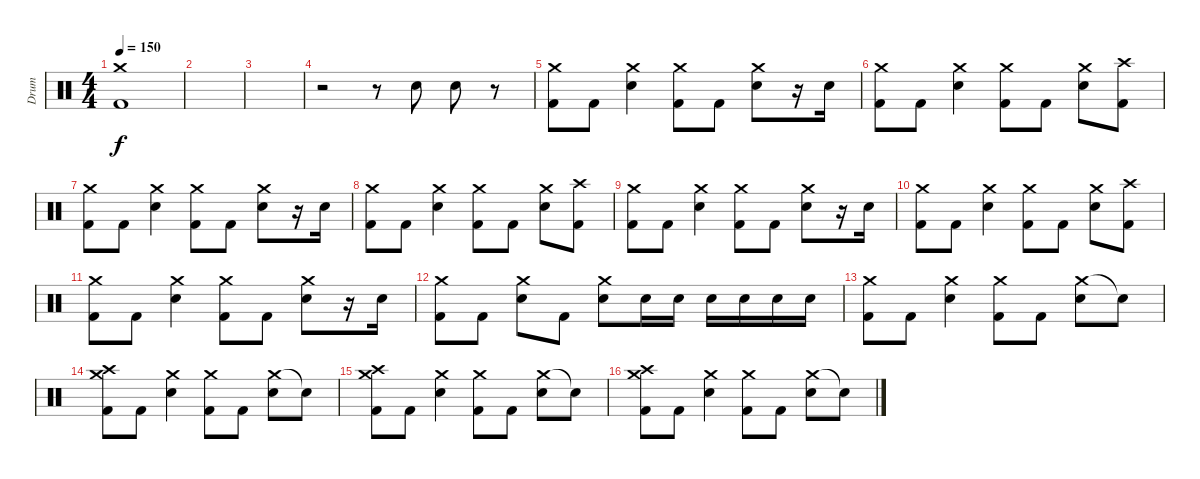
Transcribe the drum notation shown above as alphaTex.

\track ("Drum" "Drum") {instrument percussion}
\staff {score}
\articulation defaults
\ts (4 4)
\tempo 150
\clef neutral
\ks c
("Crash medium (hit)" "Kick (hit) 2").1{dy f} |
|
|
r.2 r.8 "Electric Snare (hit)".8 "Electric Snare (hit)".8 r.8 |
("Crash medium (hit)" "Kick (hit) 2").8 "Kick (hit) 2".8 ("Crash medium (hit)" "Electric Snare (hit)").4 ("Crash medium (hit)" "Kick (hit) 2").8 "Kick (hit) 2".8 ("Crash medium (hit)" "Electric Snare (hit)").8 r.16 "Electric Snare (hit)".16 |
("Crash medium (hit)" "Kick (hit) 2").8 "Kick (hit) 2".8 ("Crash medium (hit)" "Electric Snare (hit)").4 ("Crash medium (hit)" "Kick (hit) 2").8 "Kick (hit) 2".8 ("Crash medium (hit)" "Electric Snare (hit)").8 ("Crash high (hit)" "Kick (hit) 2").8 |
("Crash medium (hit)" "Kick (hit) 2").8 "Kick (hit) 2".8 ("Crash medium (hit)" "Electric Snare (hit)").4 ("Crash medium (hit)" "Kick (hit) 2").8 "Kick (hit) 2".8 ("Crash medium (hit)" "Electric Snare (hit)").8 r.16 "Electric Snare (hit)".16 |
("Crash medium (hit)" "Kick (hit) 2").8 "Kick (hit) 2".8 ("Crash medium (hit)" "Electric Snare (hit)").4 ("Crash medium (hit)" "Kick (hit) 2").8 "Kick (hit) 2".8 ("Crash medium (hit)" "Electric Snare (hit)").8 ("Crash high (hit)" "Kick (hit) 2").8 |
("Crash medium (hit)" "Kick (hit) 2").8 "Kick (hit) 2".8 ("Crash medium (hit)" "Electric Snare (hit)").4 ("Crash medium (hit)" "Kick (hit) 2").8 "Kick (hit) 2".8 ("Crash medium (hit)" "Electric Snare (hit)").8 r.16 "Electric Snare (hit)".16 |
("Crash medium (hit)" "Kick (hit) 2").8 "Kick (hit) 2".8 ("Crash medium (hit)" "Electric Snare (hit)").4 ("Crash medium (hit)" "Kick (hit) 2").8 "Kick (hit) 2".8 ("Crash medium (hit)" "Electric Snare (hit)").8 ("Crash high (hit)" "Kick (hit) 2").8 |
("Crash medium (hit)" "Kick (hit) 2").8 "Kick (hit) 2".8 ("Crash medium (hit)" "Electric Snare (hit)").4 ("Crash medium (hit)" "Kick (hit) 2").8 "Kick (hit) 2".8 ("Crash medium (hit)" "Electric Snare (hit)").8 r.16 "Electric Snare (hit)".16 |
("Crash medium (hit)" "Kick (hit) 2").8 "Kick (hit) 2".8 ("Crash medium (hit)" "Electric Snare (hit)").8 "Kick (hit) 2".8 ("Crash medium (hit)" "Electric Snare (hit)").8 "Electric Snare (hit)".16 "Electric Snare (hit)".16 "Electric Snare (hit)".16 "Electric Snare (hit)".16 "Electric Snare (hit)".16 "Electric Snare (hit)".16 |
("Crash medium (hit)" "Kick (hit) 2").8 "Kick (hit) 2".8 ("Crash medium (hit)" "Electric Snare (hit)").4 ("Crash medium (hit)" "Kick (hit) 2").8 "Kick (hit) 2".8 ("Crash medium (hit)" "Electric Snare (hit)").8 "Snare (hit)"{t}.8 |
("Crash high (hit)" "Crash medium (hit)" "Kick (hit) 2").8 "Kick (hit) 2".8 ("Crash medium (hit)" "Electric Snare (hit)").4 ("Crash medium (hit)" "Kick (hit) 2").8 "Kick (hit) 2".8 ("Crash medium (hit)" "Electric Snare (hit)").8 "Snare (hit)"{t}.8 |
("Crash high (hit)" "Crash medium (hit)" "Kick (hit) 2").8 "Kick (hit) 2".8 ("Crash medium (hit)" "Electric Snare (hit)").4 ("Crash medium (hit)" "Kick (hit) 2").8 "Kick (hit) 2".8 ("Crash medium (hit)" "Electric Snare (hit)").8 "Snare (hit)"{t}.8 |
("Crash high (hit)" "Crash medium (hit)" "Kick (hit) 2").8 "Kick (hit) 2".8 ("Crash medium (hit)" "Electric Snare (hit)").4 ("Crash medium (hit)" "Kick (hit) 2").8 "Kick (hit) 2".8 ("Crash medium (hit)" "Electric Snare (hit)").8 "Snare (hit)"{t}.8
